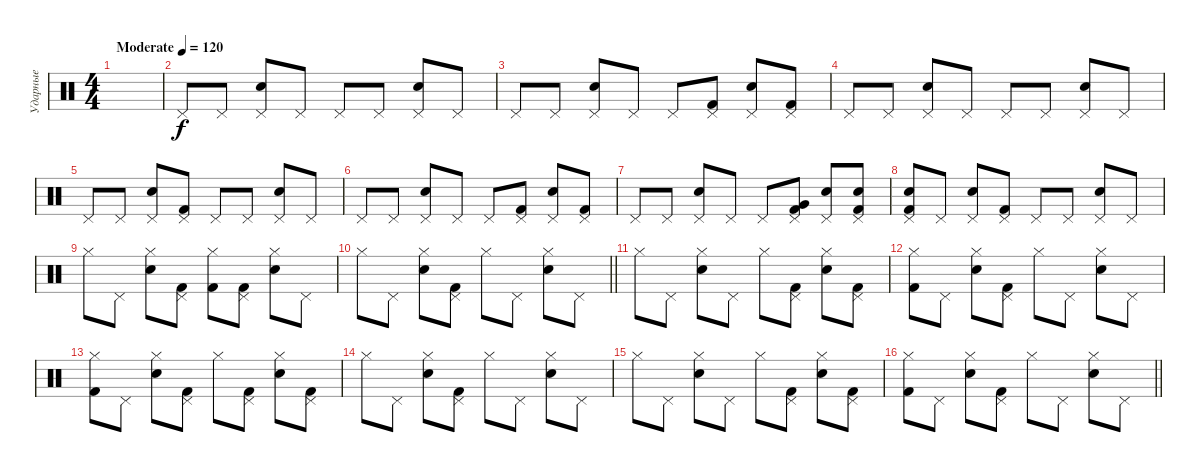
\track ("Ударные" "Ударные") {instrument percussion}
\staff {score}
\articulation defaults
\ts (4 4)
\tempo (120 "Moderate")
\clef neutral
\ks c
|
"Pedal Hi-Hat (hit)".8 "Pedal Hi-Hat (hit)".8 ("Snare (hit) 2" "Pedal Hi-Hat (hit)").8 "Pedal Hi-Hat (hit)".8 "Pedal Hi-Hat (hit)".8 "Pedal Hi-Hat (hit)".8 ("Snare (hit) 2" "Pedal Hi-Hat (hit)").8 "Pedal Hi-Hat (hit)".8 |
"Pedal Hi-Hat (hit)".8 "Pedal Hi-Hat (hit)".8 ("Snare (hit) 2" "Pedal Hi-Hat (hit)").8 "Pedal Hi-Hat (hit)".8 "Pedal Hi-Hat (hit)".8 ("Kick (hit) 2" "Pedal Hi-Hat (hit)").8 ("Snare (hit) 2" "Pedal Hi-Hat (hit)").8 ("Kick (hit) 2" "Pedal Hi-Hat (hit)").8 |
"Pedal Hi-Hat (hit)".8 "Pedal Hi-Hat (hit)".8 ("Snare (hit) 2" "Pedal Hi-Hat (hit)").8 "Pedal Hi-Hat (hit)".8 "Pedal Hi-Hat (hit)".8 "Pedal Hi-Hat (hit)".8 ("Snare (hit) 2" "Pedal Hi-Hat (hit)").8 "Pedal Hi-Hat (hit)".8 |
"Pedal Hi-Hat (hit)".8 "Pedal Hi-Hat (hit)".8 ("Snare (hit) 2" "Pedal Hi-Hat (hit)").8 ("Kick (hit) 2" "Pedal Hi-Hat (hit)").8 "Pedal Hi-Hat (hit)".8 "Pedal Hi-Hat (hit)".8 ("Snare (hit) 2" "Pedal Hi-Hat (hit)").8 "Pedal Hi-Hat (hit)".8 |
"Pedal Hi-Hat (hit)".8 "Pedal Hi-Hat (hit)".8 ("Snare (hit) 2" "Pedal Hi-Hat (hit)").8 "Pedal Hi-Hat (hit)".8 "Pedal Hi-Hat (hit)".8 ("Kick (hit) 2" "Pedal Hi-Hat (hit)").8 ("Snare (hit) 2" "Pedal Hi-Hat (hit)").8 ("Kick (hit) 2" "Pedal Hi-Hat (hit)").8 |
"Pedal Hi-Hat (hit)".8 "Pedal Hi-Hat (hit)".8 ("Snare (hit) 2" "Pedal Hi-Hat (hit)").8 "Pedal Hi-Hat (hit)".8 "Pedal Hi-Hat (hit)".8 ("Very Low Tom (hit)" "Kick (hit) 2" "Pedal Hi-Hat (hit)").8 ("Snare (hit) 2" "Pedal Hi-Hat (hit)").8 ("Electric Snare (hit)" "Kick (hit) 2" "Pedal Hi-Hat (hit)").8 |
("Snare (hit) 2" "Kick (hit) 2" "Pedal Hi-Hat (hit)").8 "Pedal Hi-Hat (hit)".8 ("Snare (hit) 2" "Pedal Hi-Hat (hit)").8 ("Kick (hit) 2" "Pedal Hi-Hat (hit)").8 "Pedal Hi-Hat (hit)".8 "Pedal Hi-Hat (hit)".8 ("Snare (hit) 2" "Pedal Hi-Hat (hit)").8 "Pedal Hi-Hat (hit)".8 |
"Hi-Hat (closed)".8 "Pedal Hi-Hat (hit)".8 ("Snare (hit) 2" "Hi-Hat (closed)").8 ("Kick (hit) 2" "Pedal Hi-Hat (hit)").8 ("Kick (hit) 2" "Hi-Hat (closed)").8 ("Kick (hit) 2" "Pedal Hi-Hat (hit)").8 ("Snare (hit) 2" "Hi-Hat (closed)").8 "Pedal Hi-Hat (hit)".8 |
\barLineRight lightlight "Hi-Hat (closed)".8 "Pedal Hi-Hat (hit)".8
("Snare (hit) 2" "Hi-Hat (closed)").8 ("Kick (hit) 2" "Pedal Hi-Hat (hit)").8 "Hi-Hat (closed)".8 "Pedal Hi-Hat (hit)".8 ("Snare (hit) 2" "Hi-Hat (closed)").8 "Pedal Hi-Hat (hit)".8 |
"Hi-Hat (closed)".8 "Pedal Hi-Hat (hit)".8 ("Snare (hit) 2" "Hi-Hat (closed)").8 "Pedal Hi-Hat (hit)".8 "Hi-Hat (closed)".8 ("Kick (hit) 2" "Pedal Hi-Hat (hit)").8 ("Snare (hit) 2" "Hi-Hat (closed)").8 ("Kick (hit) 2" "Pedal Hi-Hat (hit)").8 |
("Kick (hit) 2" "Hi-Hat (closed)").8 "Pedal Hi-Hat (hit)".8 ("Snare (hit) 2" "Hi-Hat (closed)").8 ("Kick (hit) 2" "Pedal Hi-Hat (hit)").8 "Hi-Hat (closed)".8 "Pedal Hi-Hat (hit)".8 ("Snare (hit) 2" "Hi-Hat (closed)").8 "Pedal Hi-Hat (hit)".8 |
("Kick (hit) 2" "Hi-Hat (closed)").8 "Pedal Hi-Hat (hit)".8 ("Snare (hit) 2" "Hi-Hat (closed)").8 ("Kick (hit) 2" "Pedal Hi-Hat (hit)").8 "Hi-Hat (closed)".8 ("Kick (hit) 2" "Pedal Hi-Hat (hit)").8 ("Snare (hit) 2" "Hi-Hat (closed)").8 ("Kick (hit) 2" "Pedal Hi-Hat (hit)").8 |
"Hi-Hat (closed)".8 "Pedal Hi-Hat (hit)".8 ("Snare (hit) 2" "Hi-Hat (closed)").8 ("Kick (hit) 2" "Pedal Hi-Hat (hit)").8 "Hi-Hat (closed)".8 "Pedal Hi-Hat (hit)".8 ("Snare (hit) 2" "Hi-Hat (closed)").8 "Pedal Hi-Hat (hit)".8 |
"Hi-Hat (closed)".8 "Pedal Hi-Hat (hit)".8 ("Snare (hit) 2" "Hi-Hat (closed)").8 "Pedal Hi-Hat (hit)".8 "Hi-Hat (closed)".8 ("Kick (hit) 2" "Pedal Hi-Hat (hit)").8 ("Snare (hit) 2" "Hi-Hat (closed)").8 ("Kick (hit) 2" "Pedal Hi-Hat (hit)").8 |
\barLineRight lightlight
("Kick (hit) 2" "Hi-Hat (closed)").8 "Pedal Hi-Hat (hit)".8 ("Snare (hit) 2" "Hi-Hat (closed)").8 ("Kick (hit) 2" "Pedal Hi-Hat (hit)").8 "Hi-Hat (closed)".8 "Pedal Hi-Hat (hit)".8 ("Snare (hit) 2" "Hi-Hat (closed)").8 "Pedal Hi-Hat (hit)".8
